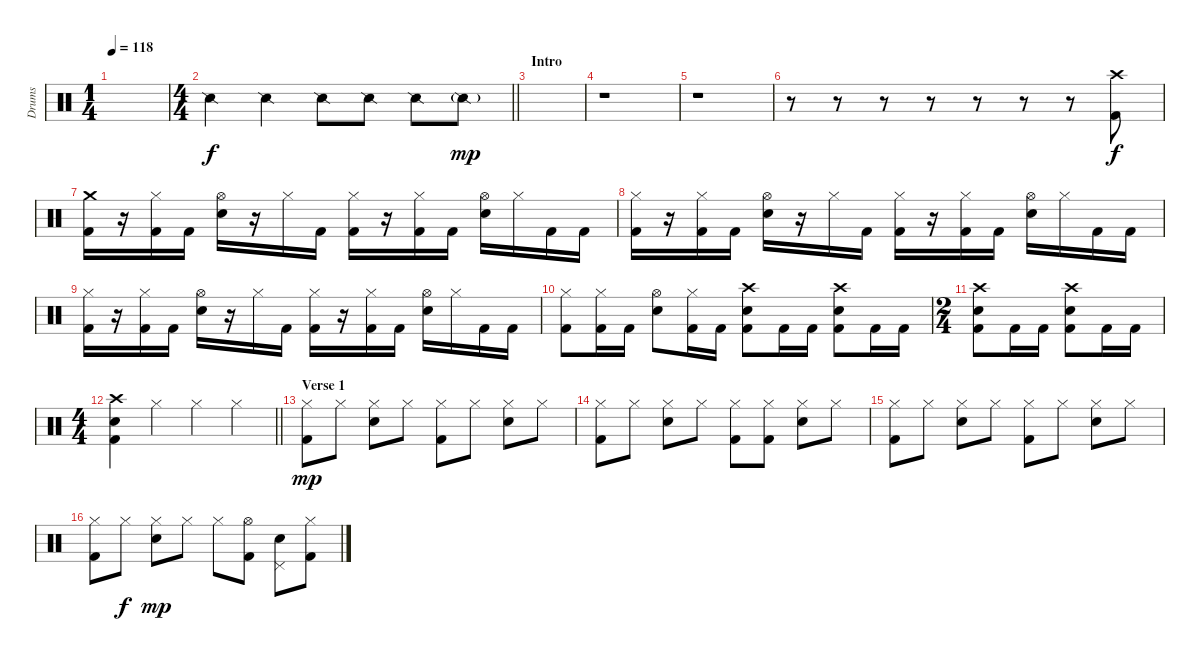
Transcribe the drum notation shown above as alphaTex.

\track ("Drums" "Drums") {instrument percussion}
\staff {score}
\articulation defaults
\ts (1 4)
\tempo 118
\clef neutral
\ks c
|
\ts (4 4)
\barLineRight lightlight "Snare (side stick) 2".4 "Snare (side stick) 2".4 "Snare (side stick) 2".8 "Snare (side stick) 2".8 "Snare (side stick) 2".8 "Snare (side stick) 2"{g}.8{dy mp}
|
\section ("" "Intro")
|
r.1 |
r.1 |
r.8 r.8 r.8 r.8 r.8 r.8 r.8 ("Crash high (hit)" "Kick (hit) 2").8{dy f} |
("Crash medium (hit)" "Kick (hit) 2").16 r.16 ("Hi-Hat (closed)" "Kick (hit) 2").16 "Kick (hit) 2".16 ("Hi-Hat (open)" "Snare (hit) 2").16 r.16 "Hi-Hat (closed)".16 "Kick (hit) 2".16 ("Hi-Hat (closed)" "Kick (hit) 2").16 r.16 ("Hi-Hat (closed)" "Kick (hit) 2").16 "Kick (hit) 2".16 ("Hi-Hat (open)" "Snare (hit) 2").16 "Hi-Hat (closed)".16 "Kick (hit) 2".16 "Kick (hit) 2".16 |
("Hi-Hat (closed)" "Kick (hit) 2").16 r.16 ("Hi-Hat (closed)" "Kick (hit) 2").16 "Kick (hit) 2".16 ("Hi-Hat (open)" "Snare (hit) 2").16 r.16 "Hi-Hat (closed)".16 "Kick (hit) 2".16 ("Hi-Hat (closed)" "Kick (hit) 2").16 r.16 ("Hi-Hat (closed)" "Kick (hit) 2").16 "Kick (hit) 2".16 ("Hi-Hat (open)" "Snare (hit) 2").16 "Hi-Hat (closed)".16 "Kick (hit) 2".16 "Kick (hit) 2".16 |
("Hi-Hat (closed)" "Kick (hit) 2").16 r.16 ("Hi-Hat (closed)" "Kick (hit) 2").16 "Kick (hit) 2".16 ("Hi-Hat (open)" "Snare (hit) 2").16 r.16 "Hi-Hat (closed)".16 "Kick (hit) 2".16 ("Hi-Hat (closed)" "Kick (hit) 2").16 r.16 ("Hi-Hat (closed)" "Kick (hit) 2").16 "Kick (hit) 2".16 ("Hi-Hat (open)" "Snare (hit) 2").16 "Hi-Hat (closed)".16 "Kick (hit) 2".16 "Kick (hit) 2".16 |
("Hi-Hat (closed)" "Kick (hit) 2").8 ("Hi-Hat (closed)" "Kick (hit) 2").16 "Kick (hit) 2".16 ("Hi-Hat (open)" "Snare (hit) 2").8 ("Hi-Hat (closed)" "Kick (hit) 2").16 "Kick (hit) 2".16 ("Crash high (hit)" "Kick (hit) 2" "Snare (hit) 2").8 "Kick (hit) 2".16 "Kick (hit) 2".16 ("Crash high (hit)" "Kick (hit) 2" "Snare (hit) 2").8 "Kick (hit) 2".16 "Kick (hit) 2".16 |
\ts (2 4)
("Crash high (hit)" "Kick (hit) 2" "Snare (hit) 2").8 "Kick (hit) 2".16 "Kick (hit) 2".16 ("Crash high (hit)" "Kick (hit) 2" "Snare (hit) 2").8 "Kick (hit) 2".16 "Kick (hit) 2".16 |
\ts (4 4)
\barLineRight lightlight
("Crash high (hit)" "Kick (hit) 2" "Snare (hit) 2").4 "Hi-Hat (closed)".4 "Hi-Hat (closed)".4 "Hi-Hat (closed)".4 |
\section ("" "Verse 1")
("Hi-Hat (closed)" "Kick (hit) 2").8{dy mp} "Hi-Hat (closed)".8 ("Hi-Hat (closed)" "Snare (hit) 2").8 "Hi-Hat (closed)".8 ("Hi-Hat (closed)" "Kick (hit) 2").8 "Hi-Hat (closed)".8 ("Hi-Hat (closed)" "Snare (hit) 2").8 "Hi-Hat (closed)".8 |
("Hi-Hat (closed)" "Kick (hit) 2").8 "Hi-Hat (closed)".8 ("Hi-Hat (closed)" "Snare (hit) 2").8 "Hi-Hat (closed)".8 ("Hi-Hat (closed)" "Kick (hit) 2").8 ("Hi-Hat (closed)" "Kick (hit) 2").8 ("Hi-Hat (closed)" "Snare (hit) 2").8 "Hi-Hat (closed)".8 |
("Hi-Hat (closed)" "Kick (hit) 2").8 "Hi-Hat (closed)".8 ("Hi-Hat (closed)" "Snare (hit) 2").8 "Hi-Hat (closed)".8 ("Hi-Hat (closed)" "Kick (hit) 2").8 "Hi-Hat (closed)".8 ("Hi-Hat (closed)" "Snare (hit) 2").8 "Hi-Hat (closed)".8 |
("Hi-Hat (closed)" "Kick (hit) 2").8 "Hi-Hat (closed)".8{dy f} ("Hi-Hat (closed)" "Snare (hit) 2").8{dy mp} "Hi-Hat (closed)".8 "Hi-Hat (closed)".8 ("Hi-Hat (open)" "Kick (hit) 2").8 ("Pedal Hi-Hat (hit)" "Snare (hit) 2").8 ("Hi-Hat (closed)" "Kick (hit) 2").8
